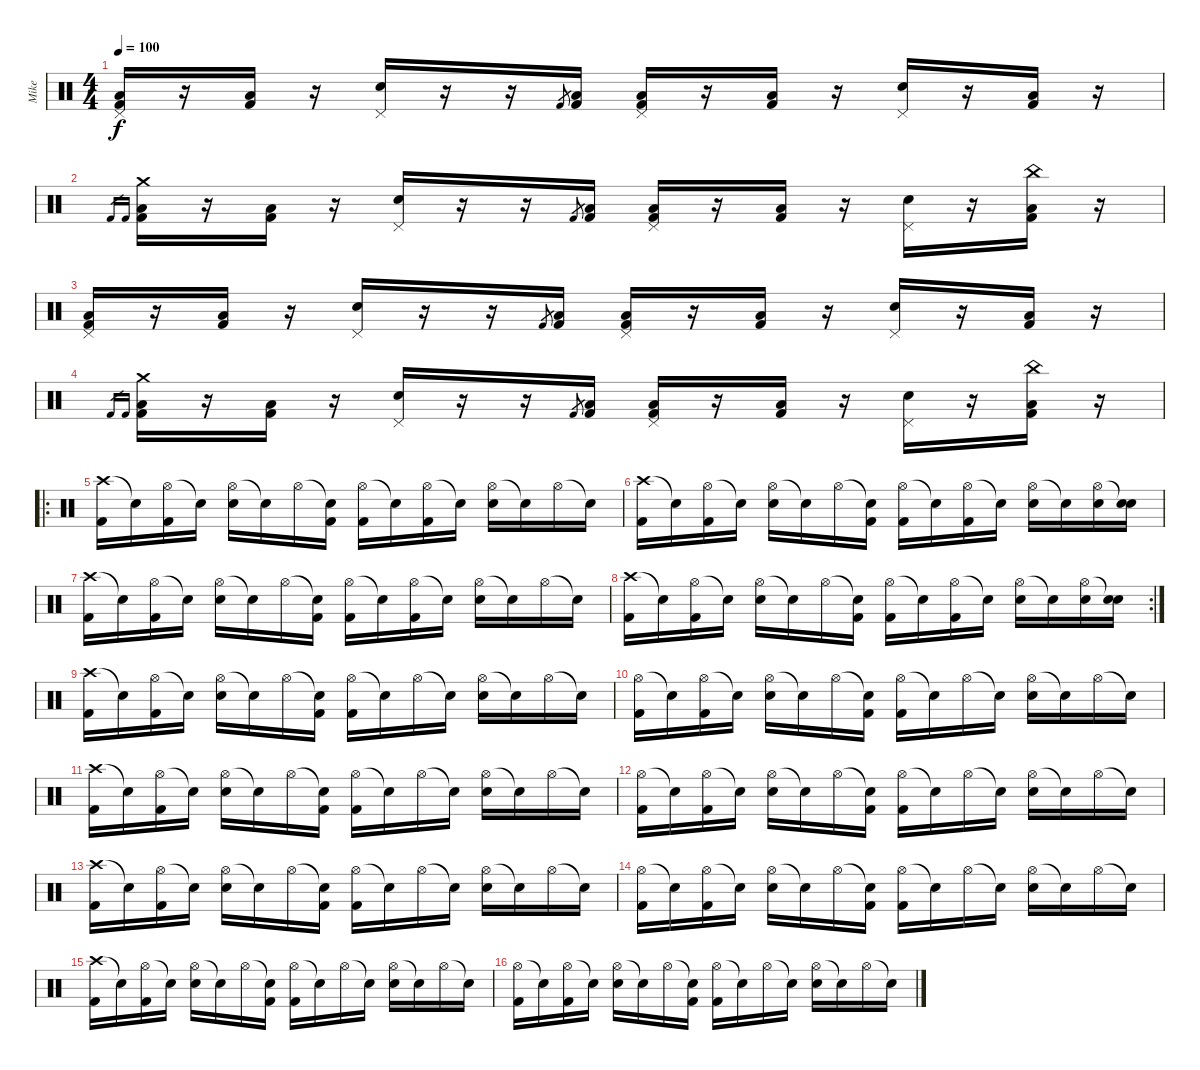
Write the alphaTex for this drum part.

\track ("Mike" "Mike") {instrument percussion}
\staff {score}
\articulation defaults
\ts (4 4)
\tempo 100
\clef neutral
\ks c
("Pedal Hi-Hat (hit)" "Low Floor Tom (hit)" "Kick (hit) 2").16{dy f} r.16 ("Low Floor Tom (hit)" "Kick (hit) 2").16 r.16 ("Pedal Hi-Hat (hit)" "Electric Snare (hit)").16 r.16 r.16 "Kick (hit) 2".8{gr} ("Low Floor Tom (hit)" "Kick (hit) 2").16 ("Pedal Hi-Hat (hit)" "Low Floor Tom (hit)" "Kick (hit) 2").16 r.16 ("Low Floor Tom (hit)" "Kick (hit) 2").16 r.16 ("Pedal Hi-Hat (hit)" "Electric Snare (hit)").16 r.16 ("Low Floor Tom (hit)" "Kick (hit) 2").16 r.16 |
"Kick (hit) 2".16{gr} "Kick (hit) 2".16{gr} ("Crash medium (hit)" "Low Floor Tom (hit)" "Kick (hit) 2").16 r.16 ("Low Floor Tom (hit)" "Kick (hit) 2").16 r.16 ("Pedal Hi-Hat (hit)" "Electric Snare (hit)").16 r.16 r.16 "Kick (hit) 2".8{gr} ("Low Floor Tom (hit)" "Kick (hit) 2").16 ("Pedal Hi-Hat (hit)" "Low Floor Tom (hit)" "Kick (hit) 2").16 r.16 ("Low Floor Tom (hit)" "Kick (hit) 2").16 r.16 ("Pedal Hi-Hat (hit)" "Electric Snare (hit)").16 r.16 ("China (hit)" "Low Floor Tom (hit)" "Kick (hit) 2").16 r.16 |
("Pedal Hi-Hat (hit)" "Low Floor Tom (hit)" "Kick (hit) 2").16 r.16 ("Low Floor Tom (hit)" "Kick (hit) 2").16 r.16 ("Pedal Hi-Hat (hit)" "Electric Snare (hit)").16 r.16 r.16 "Kick (hit) 2".8{gr} ("Low Floor Tom (hit)" "Kick (hit) 2").16 ("Pedal Hi-Hat (hit)" "Low Floor Tom (hit)" "Kick (hit) 2").16 r.16 ("Low Floor Tom (hit)" "Kick (hit) 2").16 r.16 ("Pedal Hi-Hat (hit)" "Electric Snare (hit)").16 r.16 ("Low Floor Tom (hit)" "Kick (hit) 2").16 r.16 |
"Kick (hit) 2".16{gr} "Kick (hit) 2".16{gr} ("Crash medium (hit)" "Low Floor Tom (hit)" "Kick (hit) 2").16 r.16 ("Low Floor Tom (hit)" "Kick (hit) 2").16 r.16 ("Pedal Hi-Hat (hit)" "Electric Snare (hit)").16 r.16 r.16 "Kick (hit) 2".8{gr} ("Low Floor Tom (hit)" "Kick (hit) 2").16 ("Pedal Hi-Hat (hit)" "Low Floor Tom (hit)" "Kick (hit) 2").16 r.16 ("Low Floor Tom (hit)" "Kick (hit) 2").16 r.16 ("Pedal Hi-Hat (hit)" "Electric Snare (hit)").16 r.16 ("China (hit)" "Low Floor Tom (hit)" "Kick (hit) 2").16 r.16 |
\ro
("Crash high (hit)" "Kick (hit) 2").16 "Snare (hit)"{t}.16 ("Hi-Hat (open)" "Kick (hit) 2").16 "Snare (hit)"{t}.16 ("Hi-Hat (open)" "Electric Snare (hit)").16 "Snare (hit)"{t}.16 "Hi-Hat (open)".16 ("Snare (hit)"{t} "Kick (hit) 2").16 ("Hi-Hat (open)" "Kick (hit) 2").16 "Snare (hit)"{t}.16 ("Hi-Hat (open)" "Kick (hit) 2").16 "Snare (hit)"{t}.16 ("Hi-Hat (open)" "Electric Snare (hit)").16 "Snare (hit)"{t}.16 "Hi-Hat (open)".16 "Snare (hit)"{t}.16 |
("Crash high (hit)" "Kick (hit) 2").16 "Snare (hit)"{t}.16 ("Hi-Hat (open)" "Kick (hit) 2").16 "Snare (hit)"{t}.16 ("Hi-Hat (open)" "Electric Snare (hit)").16 "Snare (hit)"{t}.16 "Hi-Hat (open)".16 ("Snare (hit)"{t} "Kick (hit) 2").16 ("Hi-Hat (open)" "Kick (hit) 2").16 "Snare (hit)"{t}.16 ("Hi-Hat (open)" "Kick (hit) 2").16 "Snare (hit)"{t}.16 ("Hi-Hat (open)" "Electric Snare (hit)").16 "Snare (hit)"{t}.16 ("Hi-Hat (open)" "Electric Snare (hit)").16 ("Snare (hit)"{t} "Electric Snare (hit)").16 |
("Crash high (hit)" "Kick (hit) 2").16 "Snare (hit)"{t}.16 ("Hi-Hat (open)" "Kick (hit) 2").16 "Snare (hit)"{t}.16 ("Hi-Hat (open)" "Electric Snare (hit)").16 "Snare (hit)"{t}.16 "Hi-Hat (open)".16 ("Snare (hit)"{t} "Kick (hit) 2").16 ("Hi-Hat (open)" "Kick (hit) 2").16 "Snare (hit)"{t}.16 ("Hi-Hat (open)" "Kick (hit) 2").16 "Snare (hit)"{t}.16 ("Hi-Hat (open)" "Electric Snare (hit)").16 "Snare (hit)"{t}.16 "Hi-Hat (open)".16 "Snare (hit)"{t}.16 |
\rc 2
("Crash high (hit)" "Kick (hit) 2").16 "Snare (hit)"{t}.16 ("Hi-Hat (open)" "Kick (hit) 2").16 "Snare (hit)"{t}.16 ("Hi-Hat (open)" "Electric Snare (hit)").16 "Snare (hit)"{t}.16 "Hi-Hat (open)".16 ("Snare (hit)"{t} "Kick (hit) 2").16 ("Hi-Hat (open)" "Kick (hit) 2").16 "Snare (hit)"{t}.16 ("Hi-Hat (open)" "Kick (hit) 2").16 "Snare (hit)"{t}.16 ("Hi-Hat (open)" "Electric Snare (hit)").16 "Snare (hit)"{t}.16 ("Hi-Hat (open)" "Electric Snare (hit)").16 ("Snare (hit)"{t} "Electric Snare (hit)").16 |
("Crash high (hit)" "Kick (hit) 2").16 "Snare (hit)"{t}.16 ("Hi-Hat (open)" "Kick (hit) 2").16 "Snare (hit)"{t}.16 ("Hi-Hat (open)" "Electric Snare (hit)").16 "Snare (hit)"{t}.16 "Hi-Hat (open)".16 ("Snare (hit)"{t} "Kick (hit) 2").16 ("Hi-Hat (open)" "Kick (hit) 2").16 "Snare (hit)"{t}.16 "Hi-Hat (open)".16 "Snare (hit)"{t}.16 ("Hi-Hat (open)" "Electric Snare (hit)").16 "Snare (hit)"{t}.16 "Hi-Hat (open)".16 "Snare (hit)"{t}.16 |
("Hi-Hat (open)" "Kick (hit) 2").16 "Snare (hit)"{t}.16 ("Hi-Hat (open)" "Kick (hit) 2").16 "Snare (hit)"{t}.16 ("Hi-Hat (open)" "Electric Snare (hit)").16 "Snare (hit)"{t}.16 "Hi-Hat (open)".16 ("Snare (hit)"{t} "Kick (hit) 2").16 ("Hi-Hat (open)" "Kick (hit) 2").16 "Snare (hit)"{t}.16 "Hi-Hat (open)".16 "Snare (hit)"{t}.16 ("Hi-Hat (open)" "Electric Snare (hit)").16 "Snare (hit)"{t}.16 "Hi-Hat (open)".16 "Snare (hit)"{t}.16 |
("Crash high (hit)" "Kick (hit) 2").16 "Snare (hit)"{t}.16 ("Hi-Hat (open)" "Kick (hit) 2").16 "Snare (hit)"{t}.16 ("Hi-Hat (open)" "Electric Snare (hit)").16 "Snare (hit)"{t}.16 "Hi-Hat (open)".16 ("Snare (hit)"{t} "Kick (hit) 2").16 ("Hi-Hat (open)" "Kick (hit) 2").16 "Snare (hit)"{t}.16 "Hi-Hat (open)".16 "Snare (hit)"{t}.16 ("Hi-Hat (open)" "Electric Snare (hit)").16 "Snare (hit)"{t}.16 "Hi-Hat (open)".16 "Snare (hit)"{t}.16 |
("Hi-Hat (open)" "Kick (hit) 2").16 "Snare (hit)"{t}.16 ("Hi-Hat (open)" "Kick (hit) 2").16 "Snare (hit)"{t}.16 ("Hi-Hat (open)" "Electric Snare (hit)").16 "Snare (hit)"{t}.16 "Hi-Hat (open)".16 ("Snare (hit)"{t} "Kick (hit) 2").16 ("Hi-Hat (open)" "Kick (hit) 2").16 "Snare (hit)"{t}.16 "Hi-Hat (open)".16 "Snare (hit)"{t}.16 ("Hi-Hat (open)" "Electric Snare (hit)").16 "Snare (hit)"{t}.16 "Hi-Hat (open)".16 "Snare (hit)"{t}.16 |
("Crash high (hit)" "Kick (hit) 2").16 "Snare (hit)"{t}.16 ("Hi-Hat (open)" "Kick (hit) 2").16 "Snare (hit)"{t}.16 ("Hi-Hat (open)" "Electric Snare (hit)").16 "Snare (hit)"{t}.16 "Hi-Hat (open)".16 ("Snare (hit)"{t} "Kick (hit) 2").16 ("Hi-Hat (open)" "Kick (hit) 2").16 "Snare (hit)"{t}.16 "Hi-Hat (open)".16 "Snare (hit)"{t}.16 ("Hi-Hat (open)" "Electric Snare (hit)").16 "Snare (hit)"{t}.16 "Hi-Hat (open)".16 "Snare (hit)"{t}.16 |
("Hi-Hat (open)" "Kick (hit) 2").16 "Snare (hit)"{t}.16 ("Hi-Hat (open)" "Kick (hit) 2").16 "Snare (hit)"{t}.16 ("Hi-Hat (open)" "Electric Snare (hit)").16 "Snare (hit)"{t}.16 "Hi-Hat (open)".16 ("Snare (hit)"{t} "Kick (hit) 2").16 ("Hi-Hat (open)" "Kick (hit) 2").16 "Snare (hit)"{t}.16 "Hi-Hat (open)".16 "Snare (hit)"{t}.16 ("Hi-Hat (open)" "Electric Snare (hit)").16 "Snare (hit)"{t}.16 "Hi-Hat (open)".16 "Snare (hit)"{t}.16 |
("Crash high (hit)" "Kick (hit) 2").16 "Snare (hit)"{t}.16 ("Hi-Hat (open)" "Kick (hit) 2").16 "Snare (hit)"{t}.16 ("Hi-Hat (open)" "Electric Snare (hit)").16 "Snare (hit)"{t}.16 "Hi-Hat (open)".16 ("Snare (hit)"{t} "Kick (hit) 2").16 ("Hi-Hat (open)" "Kick (hit) 2").16 "Snare (hit)"{t}.16 "Hi-Hat (open)".16 "Snare (hit)"{t}.16 ("Hi-Hat (open)" "Electric Snare (hit)").16 "Snare (hit)"{t}.16 "Hi-Hat (open)".16 "Snare (hit)"{t}.16 |
("Hi-Hat (open)" "Kick (hit) 2").16 "Snare (hit)"{t}.16 ("Hi-Hat (open)" "Kick (hit) 2").16 "Snare (hit)"{t}.16 ("Hi-Hat (open)" "Electric Snare (hit)").16 "Snare (hit)"{t}.16 "Hi-Hat (open)".16 ("Snare (hit)"{t} "Kick (hit) 2").16 ("Hi-Hat (open)" "Kick (hit) 2").16 "Snare (hit)"{t}.16 "Hi-Hat (open)".16 "Snare (hit)"{t}.16 ("Hi-Hat (open)" "Electric Snare (hit)").16 "Snare (hit)"{t}.16 "Hi-Hat (open)".16 "Snare (hit)"{t}.16
